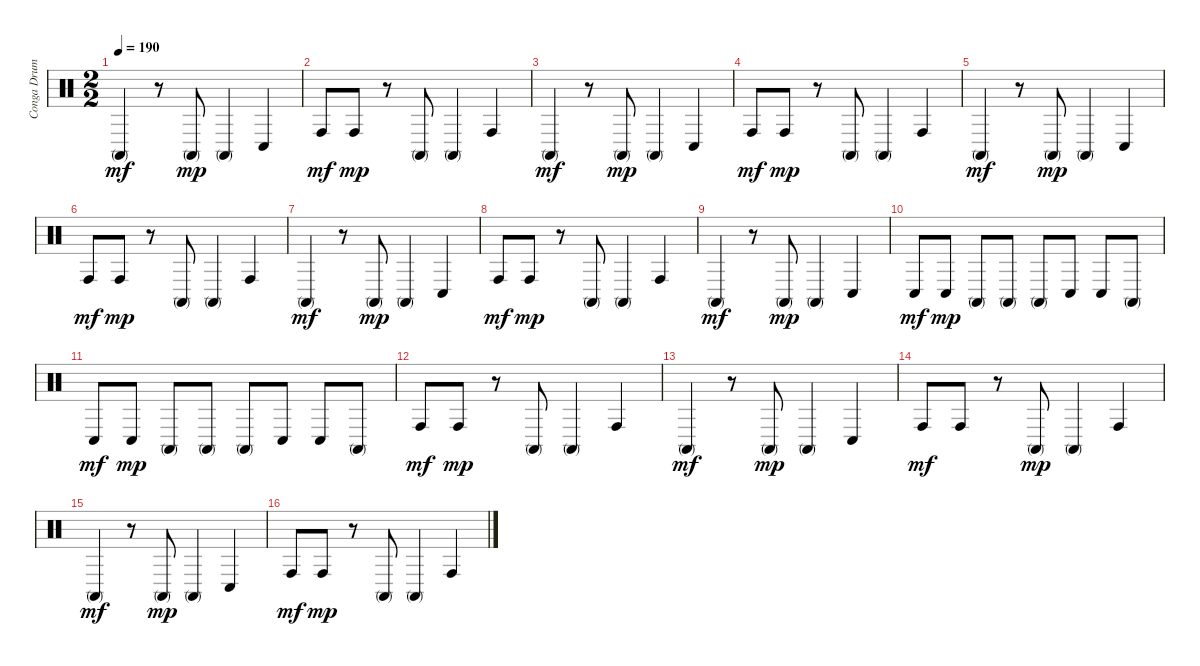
\track ("Conga Drums" "Conga Drum") {instrument percussion}
\staff {score}
\articulation defaults
\ts (2 2)
\tempo 190
\clef neutral
\ks c "Conga high (mute)".4{dy mf}
r.8 "Conga high (mute)".8{dy mp} "Conga high (mute)".4 "Conga low (hit)".4 |
"Conga high (hit)".8{dy mf} "Conga high (hit)".8{dy mp} r.8 "Conga high (mute)".8 "Conga high (mute)".4 "Conga high (hit)".4 |
"Conga high (mute)".4{dy mf} r.8 "Conga high (mute)".8{dy mp} "Conga high (mute)".4 "Conga low (hit)".4 |
"Conga high (hit)".8{dy mf} "Conga high (hit)".8{dy mp} r.8 "Conga high (mute)".8 "Conga high (mute)".4 "Conga high (hit)".4 |
"Conga high (mute)".4{dy mf} r.8 "Conga high (mute)".8{dy mp} "Conga high (mute)".4 "Conga low (hit)".4 |
"Conga high (hit)".8{dy mf} "Conga high (hit)".8{dy mp} r.8 "Conga high (mute)".8 "Conga high (mute)".4 "Conga high (hit)".4 |
"Conga high (mute)".4{dy mf} r.8 "Conga high (mute)".8{dy mp} "Conga high (mute)".4 "Conga low (hit)".4 |
"Conga high (hit)".8{dy mf} "Conga high (hit)".8{dy mp} r.8 "Conga high (mute)".8 "Conga high (mute)".4 "Conga high (hit)".4 |
"Conga high (mute)".4{dy mf} r.8 "Conga high (mute)".8{dy mp} "Conga high (mute)".4 "Conga low (hit)".4 |
"Conga low (hit)".8{dy mf} "Conga low (hit)".8{dy mp} "Conga high (mute)".8 "Conga high (mute)".8 "Conga high (mute)".8 "Conga low (hit)".8 "Conga low (hit)".8 "Conga high (mute)".8 |
"Conga low (hit)".8{dy mf} "Conga low (hit)".8{dy mp} "Conga high (mute)".8 "Conga high (mute)".8 "Conga high (mute)".8 "Conga low (hit)".8 "Conga low (hit)".8 "Conga high (mute)".8 |
"Conga high (hit)".8{dy mf} "Conga high (hit)".8{dy mp} r.8 "Conga high (mute)".8 "Conga high (mute)".4 "Conga high (hit)".4 |
"Conga high (mute)".4{dy mf} r.8 "Conga high (mute)".8{dy mp} "Conga high (mute)".4 "Conga low (hit)".4 |
"Conga high (hit)".8{dy mf} "Conga high (hit)".8 r.8 "Conga high (mute)".8{dy mp} "Conga high (mute)".4 "Conga high (hit)".4 |
"Conga high (mute)".4{dy mf} r.8 "Conga high (mute)".8{dy mp} "Conga high (mute)".4 "Conga low (hit)".4 |
"Conga high (hit)".8{dy mf} "Conga high (hit)".8{dy mp} r.8 "Conga high (mute)".8 "Conga high (mute)".4 "Conga high (hit)".4
